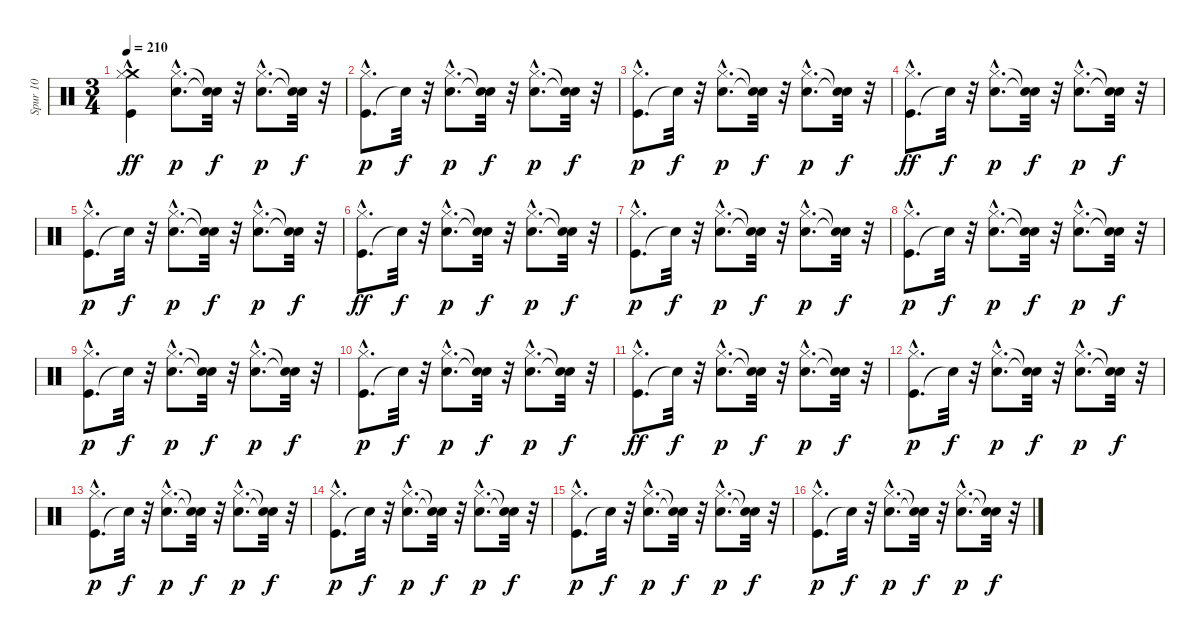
\track ("Spur 10" "Spur 10") {instrument percussion}
\staff {score}
\articulation defaults
\ts (3 4)
\tempo 210
\clef neutral
\ks c
("Crash medium (hit)" "Kick (hit)"{hac} "Hi-Hat (closed)").4{dy ff} ("Snare (hit) 2"{hac} "Hi-Hat (closed)"{hac}).8{d dy p} ("Snare (hit)"{t} "Snare (hit)"{t}).32{dy f} r.32 ("Snare (hit) 2"{hac} "Hi-Hat (closed)"{hac}).8{d dy p} ("Snare (hit)"{t} "Snare (hit)"{t}).32{dy f} r.32 |
("Kick (hit)"{hac} "Hi-Hat (closed)").8{d dy p} "Snare (hit)"{t}.32{dy f} r.32 ("Snare (hit) 2"{hac} "Hi-Hat (closed)"{hac}).8{d dy p} ("Snare (hit)"{t} "Snare (hit)"{t}).32{dy f} r.32 ("Snare (hit) 2"{hac} "Hi-Hat (closed)"{hac}).8{d dy p} ("Snare (hit)"{t} "Snare (hit)"{t}).32{dy f} r.32 |
("Kick (hit)"{hac} "Hi-Hat (closed)").8{d dy p} "Snare (hit)"{t}.32{dy f} r.32 ("Snare (hit) 2"{hac} "Hi-Hat (closed)"{hac}).8{d dy p} ("Snare (hit)"{t} "Snare (hit)"{t}).32{dy f} r.32 ("Snare (hit) 2"{hac} "Hi-Hat (closed)"{hac}).8{d dy p} ("Snare (hit)"{t} "Snare (hit)"{t}).32{dy f} r.32 |
("Kick (hit)"{hac} "Hi-Hat (closed)").8{d dy ff} "Snare (hit)"{t}.32{dy f} r.32 ("Snare (hit) 2"{hac} "Hi-Hat (closed)"{hac}).8{d dy p} ("Snare (hit)"{t} "Snare (hit)"{t}).32{dy f} r.32 ("Snare (hit) 2"{hac} "Hi-Hat (closed)"{hac}).8{d dy p} ("Snare (hit)"{t} "Snare (hit)"{t}).32{dy f} r.32 |
("Kick (hit)"{hac} "Hi-Hat (closed)").8{d dy p} "Snare (hit)"{t}.32{dy f} r.32 ("Snare (hit) 2"{hac} "Hi-Hat (closed)"{hac}).8{d dy p} ("Snare (hit)"{t} "Snare (hit)"{t}).32{dy f} r.32 ("Snare (hit) 2"{hac} "Hi-Hat (closed)"{hac}).8{d dy p} ("Snare (hit)"{t} "Snare (hit)"{t}).32{dy f} r.32 |
("Kick (hit)"{hac} "Hi-Hat (closed)").8{d dy ff} "Snare (hit)"{t}.32{dy f} r.32 ("Snare (hit) 2"{hac} "Hi-Hat (closed)"{hac}).8{d dy p} ("Snare (hit)"{t} "Snare (hit)"{t}).32{dy f} r.32 ("Snare (hit) 2"{hac} "Hi-Hat (closed)"{hac}).8{d dy p} ("Snare (hit)"{t} "Snare (hit)"{t}).32{dy f} r.32 |
("Kick (hit)"{hac} "Hi-Hat (closed)").8{d dy p} "Snare (hit)"{t}.32{dy f} r.32 ("Snare (hit) 2"{hac} "Hi-Hat (closed)"{hac}).8{d dy p} ("Snare (hit)"{t} "Snare (hit)"{t}).32{dy f} r.32 ("Snare (hit) 2"{hac} "Hi-Hat (closed)"{hac}).8{d dy p} ("Snare (hit)"{t} "Snare (hit)"{t}).32{dy f} r.32 |
("Kick (hit)"{hac} "Hi-Hat (closed)").8{d dy p} "Snare (hit)"{t}.32{dy f} r.32 ("Snare (hit) 2"{hac} "Hi-Hat (closed)"{hac}).8{d dy p} ("Snare (hit)"{t} "Snare (hit)"{t}).32{dy f} r.32 ("Snare (hit) 2"{hac} "Hi-Hat (closed)"{hac}).8{d dy p} ("Snare (hit)"{t} "Snare (hit)"{t}).32{dy f} r.32 |
("Kick (hit)"{hac} "Hi-Hat (closed)").8{d dy p} "Snare (hit)"{t}.32{dy f} r.32 ("Snare (hit) 2"{hac} "Hi-Hat (closed)"{hac}).8{d dy p} ("Snare (hit)"{t} "Snare (hit)"{t}).32{dy f} r.32 ("Snare (hit) 2"{hac} "Hi-Hat (closed)"{hac}).8{d dy p} ("Snare (hit)"{t} "Snare (hit)"{t}).32{dy f} r.32 |
("Kick (hit)"{hac} "Hi-Hat (closed)").8{d dy p} "Snare (hit)"{t}.32{dy f} r.32 ("Snare (hit) 2"{hac} "Hi-Hat (closed)"{hac}).8{d dy p} ("Snare (hit)"{t} "Snare (hit)"{t}).32{dy f} r.32 ("Snare (hit) 2"{hac} "Hi-Hat (closed)"{hac}).8{d dy p} ("Snare (hit)"{t} "Snare (hit)"{t}).32{dy f} r.32 |
("Kick (hit)"{hac} "Hi-Hat (closed)").8{d dy ff} "Snare (hit)"{t}.32{dy f} r.32 ("Snare (hit) 2"{hac} "Hi-Hat (closed)"{hac}).8{d dy p} ("Snare (hit)"{t} "Snare (hit)"{t}).32{dy f} r.32 ("Snare (hit) 2"{hac} "Hi-Hat (closed)"{hac}).8{d dy p} ("Snare (hit)"{t} "Snare (hit)"{t}).32{dy f} r.32 |
("Kick (hit)"{hac} "Hi-Hat (closed)").8{d dy p} "Snare (hit)"{t}.32{dy f} r.32 ("Snare (hit) 2"{hac} "Hi-Hat (closed)"{hac}).8{d dy p} ("Snare (hit)"{t} "Snare (hit)"{t}).32{dy f} r.32 ("Snare (hit) 2"{hac} "Hi-Hat (closed)"{hac}).8{d dy p} ("Snare (hit)"{t} "Snare (hit)"{t}).32{dy f} r.32 |
("Kick (hit)"{hac} "Hi-Hat (closed)").8{d dy p} "Snare (hit)"{t}.32{dy f} r.32 ("Snare (hit) 2"{hac} "Hi-Hat (closed)"{hac}).8{d dy p} ("Snare (hit)"{t} "Snare (hit)"{t}).32{dy f} r.32 ("Snare (hit) 2"{hac} "Hi-Hat (closed)"{hac}).8{d dy p} ("Snare (hit)"{t} "Snare (hit)"{t}).32{dy f} r.32 |
("Kick (hit)"{hac} "Hi-Hat (closed)").8{d dy p} "Snare (hit)"{t}.32{dy f} r.32 ("Snare (hit) 2"{hac} "Hi-Hat (closed)"{hac}).8{d dy p} ("Snare (hit)"{t} "Snare (hit)"{t}).32{dy f} r.32 ("Snare (hit) 2"{hac} "Hi-Hat (closed)"{hac}).8{d dy p} ("Snare (hit)"{t} "Snare (hit)"{t}).32{dy f} r.32 |
("Kick (hit)"{hac} "Hi-Hat (closed)").8{d dy p} "Snare (hit)"{t}.32{dy f} r.32 ("Snare (hit) 2"{hac} "Hi-Hat (closed)"{hac}).8{d dy p} ("Snare (hit)"{t} "Snare (hit)"{t}).32{dy f} r.32 ("Snare (hit) 2"{hac} "Hi-Hat (closed)"{hac}).8{d dy p} ("Snare (hit)"{t} "Snare (hit)"{t}).32{dy f} r.32 |
("Kick (hit)"{hac} "Hi-Hat (closed)").8{d dy p} "Snare (hit)"{t}.32{dy f} r.32 ("Snare (hit) 2"{hac} "Hi-Hat (closed)"{hac}).8{d dy p} ("Snare (hit)"{t} "Snare (hit)"{t}).32{dy f} r.32 ("Snare (hit) 2"{hac} "Hi-Hat (closed)"{hac}).8{d dy p} ("Snare (hit)"{t} "Snare (hit)"{t}).32{dy f} r.32
